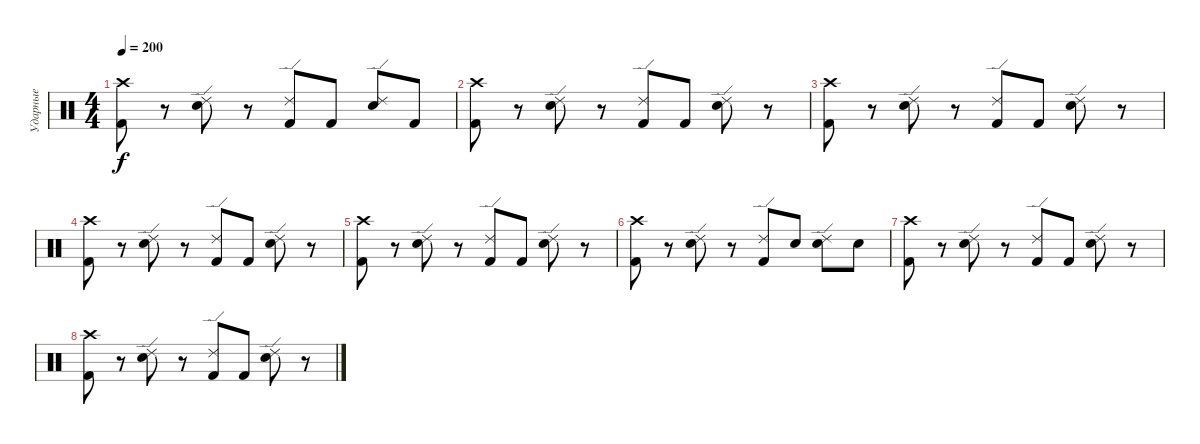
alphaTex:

\track ("Ударные" "Ударные") {instrument percussion}
\staff {score}
\articulation defaults
\ts (4 4)
\tempo 200
\clef neutral
\ks c
("Kick (hit) 2" "Crash high (hit)").8{dy f} r.8 ("Electric Snare (hit)" "Ride (edge) 2").8 r.8 ("Kick (hit) 2" "Ride (edge) 2").8 "Kick (hit) 2".8 ("Electric Snare (hit)" "Ride (edge) 2").8 "Kick (hit) 2".8 |
("Kick (hit) 2" "Crash high (hit)").8 r.8 ("Electric Snare (hit)" "Ride (edge) 2").8 r.8 ("Kick (hit) 2" "Ride (edge) 2").8 "Kick (hit) 2".8 ("Electric Snare (hit)" "Ride (edge) 2").8 r.8 |
("Kick (hit) 2" "Crash high (hit)").8 r.8 ("Electric Snare (hit)" "Ride (edge) 2").8 r.8 ("Kick (hit) 2" "Ride (edge) 2").8 "Kick (hit) 2".8 ("Electric Snare (hit)" "Ride (edge) 2").8 r.8 |
("Kick (hit) 2" "Crash high (hit)").8 r.8 ("Electric Snare (hit)" "Ride (edge) 2").8 r.8 ("Kick (hit) 2" "Ride (edge) 2").8 "Kick (hit) 2".8 ("Electric Snare (hit)" "Ride (edge) 2").8 r.8 |
("Kick (hit) 2" "Crash high (hit)").8 r.8 ("Electric Snare (hit)" "Ride (edge) 2").8 r.8 ("Kick (hit) 2" "Ride (edge) 2").8 "Kick (hit) 2".8 ("Electric Snare (hit)" "Ride (edge) 2").8 r.8 |
("Kick (hit) 2" "Crash high (hit)").8 r.8 ("Electric Snare (hit)" "Ride (edge) 2").8 r.8 ("Kick (hit) 2" "Ride (edge) 2").8 "Electric Snare (hit)".8 ("Electric Snare (hit)" "Ride (edge) 2").8 "Electric Snare (hit)".8 |
("Kick (hit) 2" "Crash high (hit)").8 r.8 ("Electric Snare (hit)" "Ride (edge) 2").8 r.8 ("Kick (hit) 2" "Ride (edge) 2").8 "Kick (hit) 2".8 ("Electric Snare (hit)" "Ride (edge) 2").8 r.8 |
("Kick (hit) 2" "Crash high (hit)").8 r.8 ("Electric Snare (hit)" "Ride (edge) 2").8 r.8 ("Kick (hit) 2" "Ride (edge) 2").8 "Kick (hit) 2".8 ("Electric Snare (hit)" "Ride (edge) 2").8 r.8
